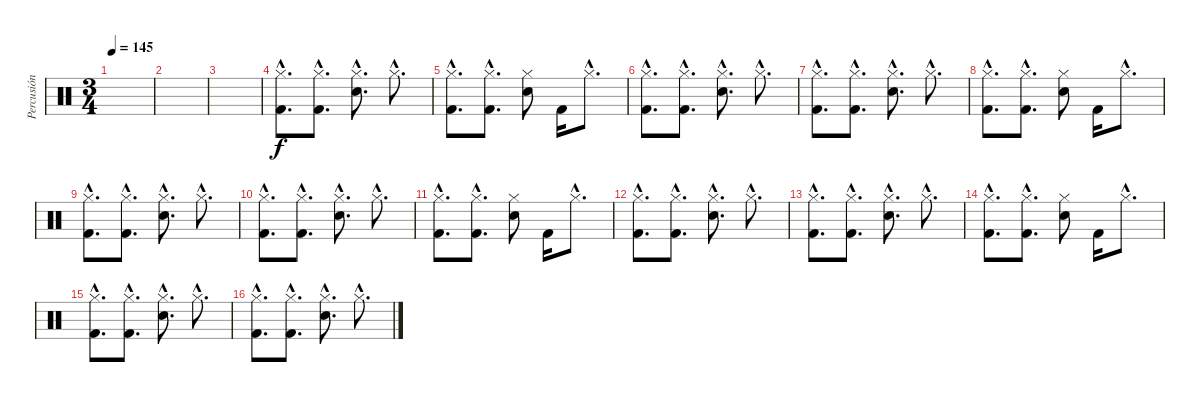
\track ("Percusión" "Percusión") {instrument percussion}
\staff {score}
\articulation defaults
\ts (3 4)
\tempo 145
\clef neutral
\ks c
|
|
|
("Hi-Hat (closed)"{hac} "Kick (hit) 2"{hac}).8{d} ("Hi-Hat (closed)"{hac} "Kick (hit) 2"{hac}).8{d} ("Hi-Hat (closed)"{hac} "Electric Snare (hit)"{hac}).8{d} "Hi-Hat (closed)"{hac}.8{d} |
("Hi-Hat (closed)"{hac} "Kick (hit) 2"{hac}).8{d} ("Hi-Hat (closed)"{hac} "Kick (hit) 2"{hac}).8{d} ("Hi-Hat (closed)" "Electric Snare (hit)").8 "Kick (hit) 2".16 "Hi-Hat (closed)"{hac}.8{d} |
("Hi-Hat (closed)"{hac} "Kick (hit) 2"{hac}).8{d} ("Hi-Hat (closed)"{hac} "Kick (hit) 2"{hac}).8{d} ("Hi-Hat (closed)"{hac} "Electric Snare (hit)"{hac}).8{d} "Hi-Hat (closed)"{hac}.8{d} |
("Hi-Hat (closed)"{hac} "Kick (hit) 2"{hac}).8{d} ("Hi-Hat (closed)"{hac} "Kick (hit) 2"{hac}).8{d} ("Hi-Hat (closed)"{hac} "Electric Snare (hit)"{hac}).8{d} "Hi-Hat (closed)"{hac}.8{d} |
("Hi-Hat (closed)"{hac} "Kick (hit) 2"{hac}).8{d} ("Hi-Hat (closed)"{hac} "Kick (hit) 2"{hac}).8{d} ("Hi-Hat (closed)" "Electric Snare (hit)").8 "Kick (hit) 2".16 "Hi-Hat (closed)"{hac}.8{d} |
("Hi-Hat (closed)"{hac} "Kick (hit) 2"{hac}).8{d} ("Hi-Hat (closed)"{hac} "Kick (hit) 2"{hac}).8{d} ("Hi-Hat (closed)"{hac} "Electric Snare (hit)"{hac}).8{d} "Hi-Hat (closed)"{hac}.8{d} |
("Hi-Hat (closed)"{hac} "Kick (hit) 2"{hac}).8{d} ("Hi-Hat (closed)"{hac} "Kick (hit) 2"{hac}).8{d} ("Hi-Hat (closed)"{hac} "Electric Snare (hit)"{hac}).8{d} "Hi-Hat (closed)"{hac}.8{d} |
("Hi-Hat (closed)"{hac} "Kick (hit) 2"{hac}).8{d} ("Hi-Hat (closed)"{hac} "Kick (hit) 2"{hac}).8{d} ("Hi-Hat (closed)" "Electric Snare (hit)").8 "Kick (hit) 2".16 "Hi-Hat (closed)"{hac}.8{d} |
("Hi-Hat (closed)"{hac} "Kick (hit) 2"{hac}).8{d} ("Hi-Hat (closed)"{hac} "Kick (hit) 2"{hac}).8{d} ("Hi-Hat (closed)"{hac} "Electric Snare (hit)"{hac}).8{d} "Hi-Hat (closed)"{hac}.8{d} |
("Hi-Hat (closed)"{hac} "Kick (hit) 2"{hac}).8{d} ("Hi-Hat (closed)"{hac} "Kick (hit) 2"{hac}).8{d} ("Hi-Hat (closed)"{hac} "Electric Snare (hit)"{hac}).8{d} "Hi-Hat (closed)"{hac}.8{d} |
("Hi-Hat (closed)"{hac} "Kick (hit) 2"{hac}).8{d} ("Hi-Hat (closed)"{hac} "Kick (hit) 2"{hac}).8{d} ("Hi-Hat (closed)" "Electric Snare (hit)").8 "Kick (hit) 2".16 "Hi-Hat (closed)"{hac}.8{d} |
("Hi-Hat (closed)"{hac} "Kick (hit) 2"{hac}).8{d} ("Hi-Hat (closed)"{hac} "Kick (hit) 2"{hac}).8{d} ("Hi-Hat (closed)"{hac} "Electric Snare (hit)"{hac}).8{d} "Hi-Hat (closed)"{hac}.8{d} |
("Hi-Hat (closed)"{hac} "Kick (hit) 2"{hac}).8{d} ("Hi-Hat (closed)"{hac} "Kick (hit) 2"{hac}).8{d} ("Hi-Hat (closed)"{hac} "Electric Snare (hit)"{hac}).8{d} "Hi-Hat (closed)"{hac}.8{d}
